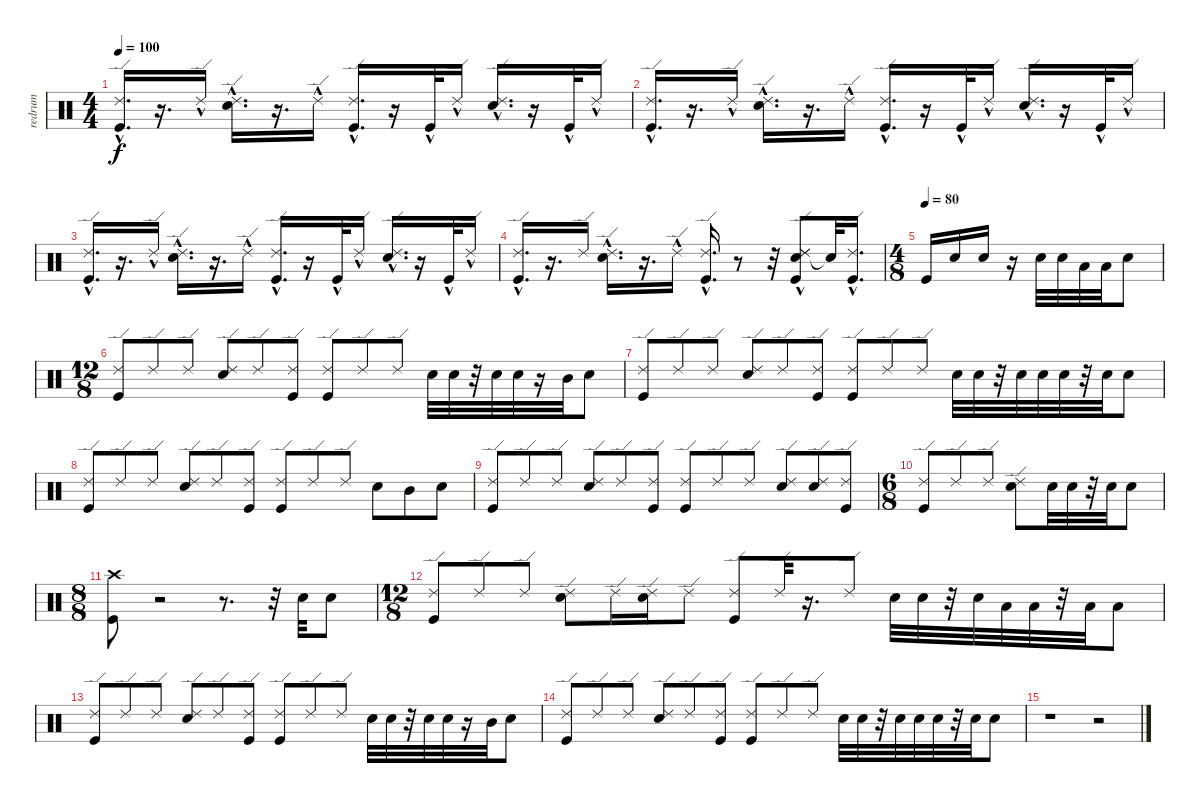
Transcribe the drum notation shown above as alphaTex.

\track ("redrum" "redrum") {instrument percussion}
\staff {score}
\articulation defaults
\ts (4 4)
\tempo 100
\clef neutral
\ks c
("Kick (hit)"{hac} "Ride (edge) 2"{hac}).16{d dy f} r.16{d} "Ride (edge) 2"{hac}.16 ("Electric Snare (hit)"{hac} "Ride (edge) 2"{hac}).16{d} r.16{d} "Ride (edge) 2"{hac}.16 ("Kick (hit)"{hac} "Ride (edge) 2"{hac}).16{d} r.16 "Kick (hit)"{hac}.32 "Ride (edge) 2"{hac}.16 ("Electric Snare (hit)"{hac} "Ride (edge) 2"{hac}).16{d} r.16 "Kick (hit)"{hac}.32 "Ride (edge) 2"{hac}.16 |
("Kick (hit)"{hac} "Ride (edge) 2"{hac}).16{d} r.16{d} "Ride (edge) 2"{hac}.16 ("Electric Snare (hit)"{hac} "Ride (edge) 2"{hac}).16{d} r.16{d} "Ride (edge) 2"{hac}.16 ("Kick (hit)"{hac} "Ride (edge) 2"{hac}).16{d} r.16 "Kick (hit)"{hac}.32 "Ride (edge) 2"{hac}.16 ("Electric Snare (hit)"{hac} "Ride (edge) 2"{hac}).16{d} r.16 "Kick (hit)"{hac}.32 "Ride (edge) 2"{hac}.16 |
("Kick (hit)"{hac} "Ride (edge) 2"{hac}).16{d} r.16{d} "Ride (edge) 2"{hac}.16 ("Electric Snare (hit)"{hac} "Ride (edge) 2"{hac}).16{d} r.16{d} "Ride (edge) 2"{hac}.16 ("Kick (hit)"{hac} "Ride (edge) 2"{hac}).16{d} r.16 "Kick (hit)"{hac}.32 "Ride (edge) 2"{hac}.16 ("Electric Snare (hit)"{hac} "Ride (edge) 2"{hac}).16{d} r.16 "Kick (hit)"{hac}.32 "Ride (edge) 2"{hac}.16 |
("Kick (hit)"{hac} "Ride (edge) 2"{hac}).16{d} r.16{d} "Ride (edge) 2".16 ("Ride (edge) 2"{hac} "Electric Snare (hit)"{hac}).16{d} r.16{d} "Ride (edge) 2"{hac}.16 ("Kick (hit)"{hac} "Ride (edge) 2"{hac}).16{d} r.8 r.32 ("Ride (edge) 2" "Kick (hit)"{hac} "Electric Snare (hit)"{hac} "Ride (edge) 2"{hac}).8 "Snare (hit)"{t}.32 ("Kick (hit)"{hac} "Ride (edge) 2"{hac}).16{d} |
\ts (4 8)
\tempo (80)
"Kick (hit)".16 "Electric Snare (hit)".16 "Electric Snare (hit)".16 r.16 "Electric Snare (hit)".32 "Electric Snare (hit)".32 "Low Floor Tom (hit)".32 "Low Floor Tom (hit)".32 "Electric Snare (hit)".8 |
\ts (12 8)
("Kick (hit)" "Ride (edge) 2").8 "Ride (edge) 2".8 "Ride (edge) 2".8 ("Electric Snare (hit)" "Ride (edge) 2").8 "Ride (edge) 2".8 ("Kick (hit)" "Ride (edge) 2").8 ("Kick (hit)" "Ride (edge) 2").8 "Ride (edge) 2".8 "Ride (edge) 2".8 "Electric Snare (hit)".32 "Electric Snare (hit)".32 r.32 "Electric Snare (hit)".32 "Electric Snare (hit)".32 r.16 "Mid Tom (hit)".32 "Electric Snare (hit)".8 |
("Kick (hit)" "Ride (edge) 2").8 "Ride (edge) 2".8 "Ride (edge) 2".8 ("Electric Snare (hit)" "Ride (edge) 2").8 "Ride (edge) 2".8 ("Kick (hit)" "Ride (edge) 2").8 ("Kick (hit)" "Ride (edge) 2").8 "Ride (edge) 2".8 "Ride (edge) 2".8 "Electric Snare (hit)".32 "Electric Snare (hit)".32 r.32 "Electric Snare (hit)".32 "Electric Snare (hit)".32 "Electric Snare (hit)".32 r.32 "Electric Snare (hit)".32 "Electric Snare (hit)".8 |
("Kick (hit)" "Ride (edge) 2").8 "Ride (edge) 2".8 "Ride (edge) 2".8 ("Electric Snare (hit)" "Ride (edge) 2").8 "Ride (edge) 2".8 ("Kick (hit)" "Ride (edge) 2").8 ("Kick (hit)" "Ride (edge) 2").8 "Ride (edge) 2".8 "Ride (edge) 2".8 "Electric Snare (hit)".8 "Mid Tom (hit)".8 "Electric Snare (hit)".8 |
("Kick (hit)" "Ride (edge) 2").8 "Ride (edge) 2".8 "Ride (edge) 2".8 ("Electric Snare (hit)" "Ride (edge) 2").8 "Ride (edge) 2".8 ("Kick (hit)" "Ride (edge) 2").8 ("Kick (hit)" "Ride (edge) 2").8 "Ride (edge) 2".8 "Ride (edge) 2".8 ("Electric Snare (hit)" "Ride (edge) 2").8 ("Electric Snare (hit)" "Ride (edge) 2").8 ("Kick (hit)" "Ride (edge) 2").8 |
\ts (6 8)
("Kick (hit)" "Ride (edge) 2").8 "Ride (edge) 2".8 "Ride (edge) 2".8 ("Electric Snare (hit)" "Ride (edge) 2").8 "Electric Snare (hit)".32 "Electric Snare (hit)".32 r.32 "Electric Snare (hit)".32 "Electric Snare (hit)".8 |
\ts (8 8)
("Kick (hit)" "Crash high (hit)").8 r.2 r.8{d} r.32 "Electric Snare (hit)".32 "Electric Snare (hit)".8 |
\ts (12 8)
("Kick (hit)" "Ride (edge) 2").8{volume 12} "Ride (edge) 2".8{volume 12} "Ride (edge) 2".8{volume 12} ("Ride (edge) 2" "Electric Snare (hit)").8{volume 12} "Ride (edge) 2".16{volume 12} ("Electric Snare (hit)" "Ride (edge) 2").16{volume 11} "Ride (edge) 2".8{volume 11} ("Kick (hit)" "Ride (edge) 2").8{volume 11} "Ride (edge) 2".32{volume 11} r.16{d} "Ride (edge) 2".8{volume 10} "Electric Snare (hit)".32{volume 10} "Electric Snare (hit)".32{volume 10} r.32 "Electric Snare (hit)".32{volume 10} "Low Floor Tom (hit)".32 "Low Floor Tom (hit)".32{volume 10} r.32 "Low Floor Tom (hit)".32{volume 10} "Low Floor Tom (hit)".8 |
("Kick (hit)" "Ride (edge) 2").8{volume 9} "Ride (edge) 2".8{volume 9} "Ride (edge) 2".8{volume 9} ("Electric Snare (hit)" "Ride (edge) 2").8{volume 9} "Ride (edge) 2".8{volume 8} ("Kick (hit)" "Ride (edge) 2").8{volume 8} ("Kick (hit)" "Ride (edge) 2").8{volume 8} "Ride (edge) 2".8{volume 8} "Ride (edge) 2".8{volume 7} "Electric Snare (hit)".32{volume 7} "Electric Snare (hit)".32{volume 7} r.32 "Electric Snare (hit)".32{volume 7} "Electric Snare (hit)".32 r.16 "Mid Tom (hit)".32{volume 7} "Electric Snare (hit)".8 |
("Kick (hit)" "Ride (edge) 2").8{volume 6} "Ride (edge) 2".8{volume 6} "Ride (edge) 2".8{volume 6} ("Electric Snare (hit)" "Ride (edge) 2").8{volume 6} "Ride (edge) 2".8{volume 5} ("Kick (hit)" "Ride (edge) 2").8{volume 5} ("Kick (hit)" "Ride (edge) 2").8{volume 5} "Ride (edge) 2".8{volume 4} "Ride (edge) 2".8{volume 4} "Electric Snare (hit)".32{volume 4} "Electric Snare (hit)".32{volume 4} r.32 "Electric Snare (hit)".32{volume 4} "Electric Snare (hit)".32 "Electric Snare (hit)".32{volume 4} r.32 "Electric Snare (hit)".32{volume 4} "Electric Snare (hit)".8 |
r.1 r.2
